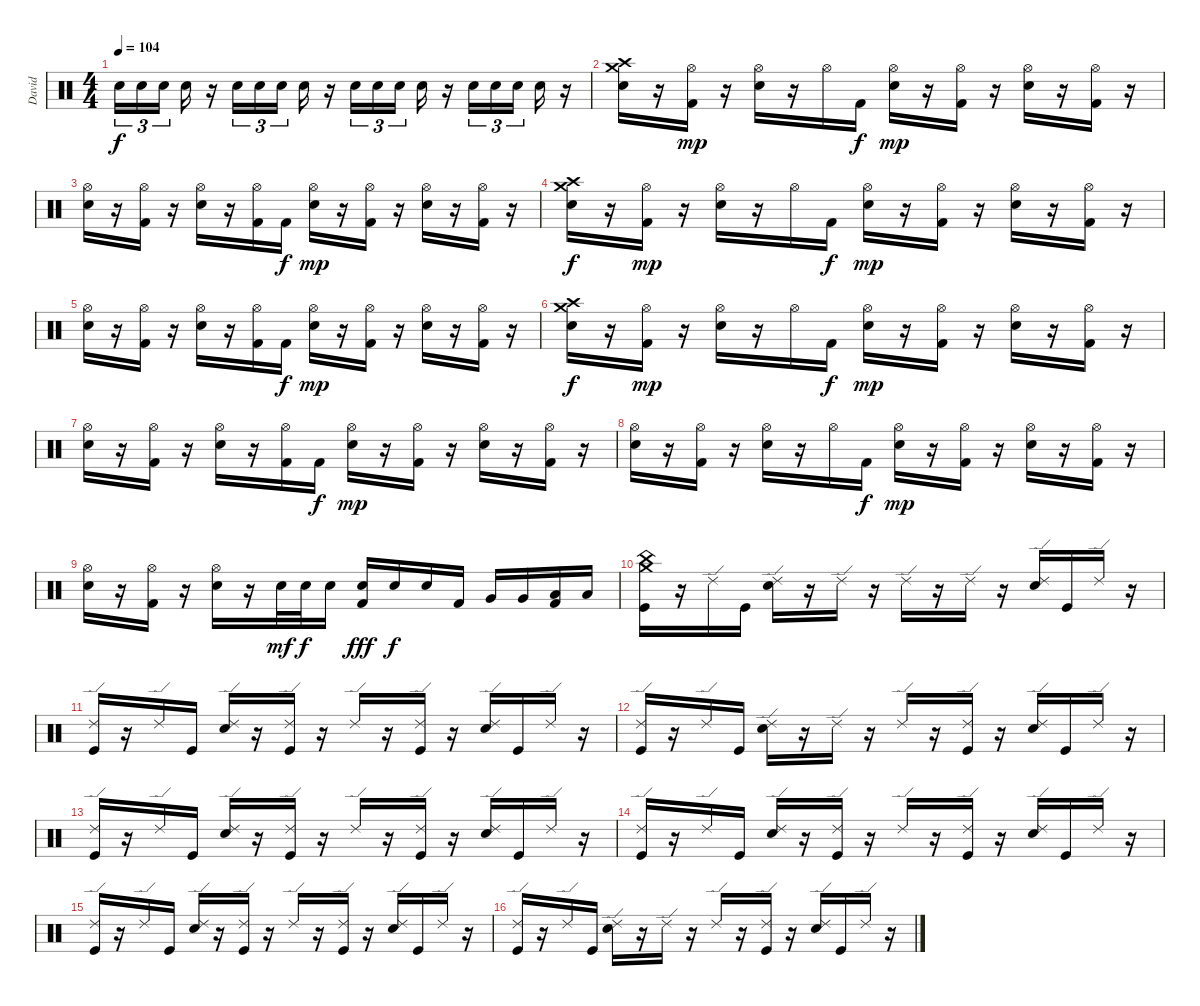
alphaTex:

\track ("David" "David") {instrument percussion}
\staff {score}
\articulation defaults
\ts (4 4)
\tempo 104
\clef neutral
\ks c "Snare (hit) 2".16{tu (3 2) dy f} "Snare (hit) 2".16{tu (3 2)} "Snare (hit) 2".16{tu (3 2)} "Snare (hit) 2".16
r.16 "Snare (hit) 2".16{tu (3 2)} "Snare (hit) 2".16{tu (3 2)} "Snare (hit) 2".16{tu (3 2)} "Snare (hit) 2".16 r.16 "Snare (hit) 2".16{tu (3 2)} "Snare (hit) 2".16{tu (3 2)} "Snare (hit) 2".16{tu (3 2)} "Snare (hit) 2".16 r.16 "Snare (hit) 2".16{tu (3 2)} "Snare (hit) 2".16{tu (3 2)} "Snare (hit) 2".16{tu (3 2)} "Snare (hit) 2".16 r.16 |
("Crash medium (hit)" "Crash high (hit)" "Snare (hit) 2").16 r.16 ("Hi-Hat (open)" "Kick (hit) 2").16{dy mp} r.16 ("Hi-Hat (open)" "Snare (hit) 2").16 r.16 "Hi-Hat (open)".16 "Kick (hit) 2".16{dy f} ("Hi-Hat (open)" "Snare (hit) 2").16{dy mp} r.16 ("Hi-Hat (open)" "Kick (hit) 2").16 r.16 ("Hi-Hat (open)" "Snare (hit) 2").16 r.16 ("Hi-Hat (open)" "Kick (hit) 2").16 r.16 |
("Hi-Hat (open)" "Snare (hit) 2").16 r.16 ("Hi-Hat (open)" "Kick (hit) 2").16 r.16 ("Hi-Hat (open)" "Snare (hit) 2").16 r.16 ("Hi-Hat (open)" "Kick (hit) 2").16 "Kick (hit) 2".16{dy f} ("Hi-Hat (open)" "Snare (hit) 2").16{dy mp} r.16 ("Hi-Hat (open)" "Kick (hit) 2").16 r.16 ("Hi-Hat (open)" "Snare (hit) 2").16 r.16 ("Hi-Hat (open)" "Kick (hit) 2").16 r.16 |
("Crash medium (hit)" "Crash high (hit)" "Snare (hit) 2").16{dy f} r.16 ("Hi-Hat (open)" "Kick (hit) 2").16{dy mp} r.16 ("Hi-Hat (open)" "Snare (hit) 2").16 r.16 "Hi-Hat (open)".16 "Kick (hit) 2".16{dy f} ("Hi-Hat (open)" "Snare (hit) 2").16{dy mp} r.16 ("Hi-Hat (open)" "Kick (hit) 2").16 r.16 ("Hi-Hat (open)" "Snare (hit) 2").16 r.16 ("Hi-Hat (open)" "Kick (hit) 2").16 r.16 |
("Hi-Hat (open)" "Snare (hit) 2").16 r.16 ("Hi-Hat (open)" "Kick (hit) 2").16 r.16 ("Hi-Hat (open)" "Snare (hit) 2").16 r.16 ("Hi-Hat (open)" "Kick (hit) 2").16 "Kick (hit) 2".16{dy f} ("Hi-Hat (open)" "Snare (hit) 2").16{dy mp} r.16 ("Hi-Hat (open)" "Kick (hit) 2").16 r.16 ("Hi-Hat (open)" "Snare (hit) 2").16 r.16 ("Hi-Hat (open)" "Kick (hit) 2").16 r.16 |
("Crash medium (hit)" "Crash high (hit)" "Snare (hit) 2").16{dy f} r.16 ("Hi-Hat (open)" "Kick (hit) 2").16{dy mp} r.16 ("Hi-Hat (open)" "Snare (hit) 2").16 r.16 "Hi-Hat (open)".16 "Kick (hit) 2".16{dy f} ("Hi-Hat (open)" "Snare (hit) 2").16{dy mp} r.16 ("Hi-Hat (open)" "Kick (hit) 2").16 r.16 ("Hi-Hat (open)" "Snare (hit) 2").16 r.16 ("Hi-Hat (open)" "Kick (hit) 2").16 r.16 |
("Hi-Hat (open)" "Snare (hit) 2").16 r.16 ("Hi-Hat (open)" "Kick (hit) 2").16 r.16 ("Hi-Hat (open)" "Snare (hit) 2").16 r.16 ("Hi-Hat (open)" "Kick (hit) 2").16 "Kick (hit) 2".16{dy f} ("Hi-Hat (open)" "Snare (hit) 2").16{dy mp} r.16 ("Hi-Hat (open)" "Kick (hit) 2").16 r.16 ("Hi-Hat (open)" "Snare (hit) 2").16 r.16 ("Hi-Hat (open)" "Kick (hit) 2").16 r.16 |
("Hi-Hat (open)" "Snare (hit) 2").16 r.16 ("Hi-Hat (open)" "Kick (hit) 2").16 r.16 ("Hi-Hat (open)" "Snare (hit) 2").16 r.16 "Hi-Hat (open)".16 "Kick (hit) 2".16{dy f} ("Hi-Hat (open)" "Snare (hit) 2").16{dy mp} r.16 ("Hi-Hat (open)" "Kick (hit) 2").16 r.16 ("Hi-Hat (open)" "Snare (hit) 2").16 r.16 ("Hi-Hat (open)" "Kick (hit) 2").16 r.16 |
("Hi-Hat (open)" "Snare (hit) 2").16 r.16 ("Hi-Hat (open)" "Kick (hit) 2").16 r.16 ("Hi-Hat (open)" "Snare (hit) 2").16 r.16 "Snare (hit) 2".32{dy mf} "Snare (hit) 2".32{dy f} "Snare (hit) 2".16 ("Snare (hit) 2" "Kick (hit) 2").16{dy fff} "Snare (hit) 2".16{dy f} "Snare (hit) 2".16 "Kick (hit) 2".16 "Very Low Tom (hit)".16 "Very Low Tom (hit)".16 ("Low Floor Tom (hit)" "Kick (hit) 2").16 "Low Floor Tom (hit)".16 |
("China (hit)" "Crash medium (hit)" "Kick (hit)").16 r.16 "Ride (edge) 2".16 "Kick (hit)".16 ("Ride (edge) 2" "Snare (hit) 2").16 r.16 "Ride (edge) 2".16 r.16 "Ride (edge) 2".16 r.16 "Ride (edge) 2".16 r.16 ("Ride (edge) 2" "Snare (hit) 2").16 "Kick (hit)".16 "Ride (edge) 2".16 r.16 |
("Ride (edge) 2" "Kick (hit)").16 r.16 "Ride (edge) 2".16 "Kick (hit)".16 ("Ride (edge) 2" "Snare (hit) 2").16 r.16 ("Ride (edge) 2" "Kick (hit)").16 r.16 "Ride (edge) 2".16 r.16 ("Ride (edge) 2" "Kick (hit)").16 r.16 ("Ride (edge) 2" "Snare (hit) 2").16 "Kick (hit)".16 "Ride (edge) 2".16 r.16 |
("Ride (edge) 2" "Kick (hit)").16 r.16 "Ride (edge) 2".16 "Kick (hit)".16 ("Ride (edge) 2" "Snare (hit) 2").16 r.16 "Ride (edge) 2".16 r.16 "Ride (edge) 2".16 r.16 ("Ride (edge) 2" "Kick (hit)").16 r.16 ("Ride (edge) 2" "Snare (hit) 2").16 "Kick (hit)".16 "Ride (edge) 2".16 r.16 |
("Ride (edge) 2" "Kick (hit)").16 r.16 "Ride (edge) 2".16 "Kick (hit)".16 ("Ride (edge) 2" "Snare (hit) 2").16 r.16 ("Ride (edge) 2" "Kick (hit)").16 r.16 "Ride (edge) 2".16 r.16 ("Ride (edge) 2" "Kick (hit)").16 r.16 ("Ride (edge) 2" "Snare (hit) 2").16 "Kick (hit)".16 "Ride (edge) 2".16 r.16 |
("Ride (edge) 2" "Kick (hit)").16 r.16 "Ride (edge) 2".16 "Kick (hit)".16 ("Ride (edge) 2" "Snare (hit) 2").16 r.16 ("Ride (edge) 2" "Kick (hit)").16 r.16 "Ride (edge) 2".16 r.16 ("Ride (edge) 2" "Kick (hit)").16 r.16 ("Ride (edge) 2" "Snare (hit) 2").16 "Kick (hit)".16 "Ride (edge) 2".16 r.16 |
("Ride (edge) 2" "Kick (hit)").16 r.16 "Ride (edge) 2".16 "Kick (hit)".16 ("Ride (edge) 2" "Snare (hit) 2").16 r.16 ("Ride (edge) 2" "Kick (hit)").16 r.16 "Ride (edge) 2".16 r.16 ("Ride (edge) 2" "Kick (hit)").16 r.16 ("Ride (edge) 2" "Snare (hit) 2").16 "Kick (hit)".16 "Ride (edge) 2".16 r.16 |
("Ride (edge) 2" "Kick (hit)").16 r.16 "Ride (edge) 2".16 "Kick (hit)".16 ("Ride (edge) 2" "Snare (hit) 2").16 r.16 "Ride (edge) 2".16 r.16 "Ride (edge) 2".16 r.16 ("Ride (edge) 2" "Kick (hit)").16 r.16 ("Ride (edge) 2" "Snare (hit) 2").16 "Kick (hit)".16 "Ride (edge) 2".16 r.16
